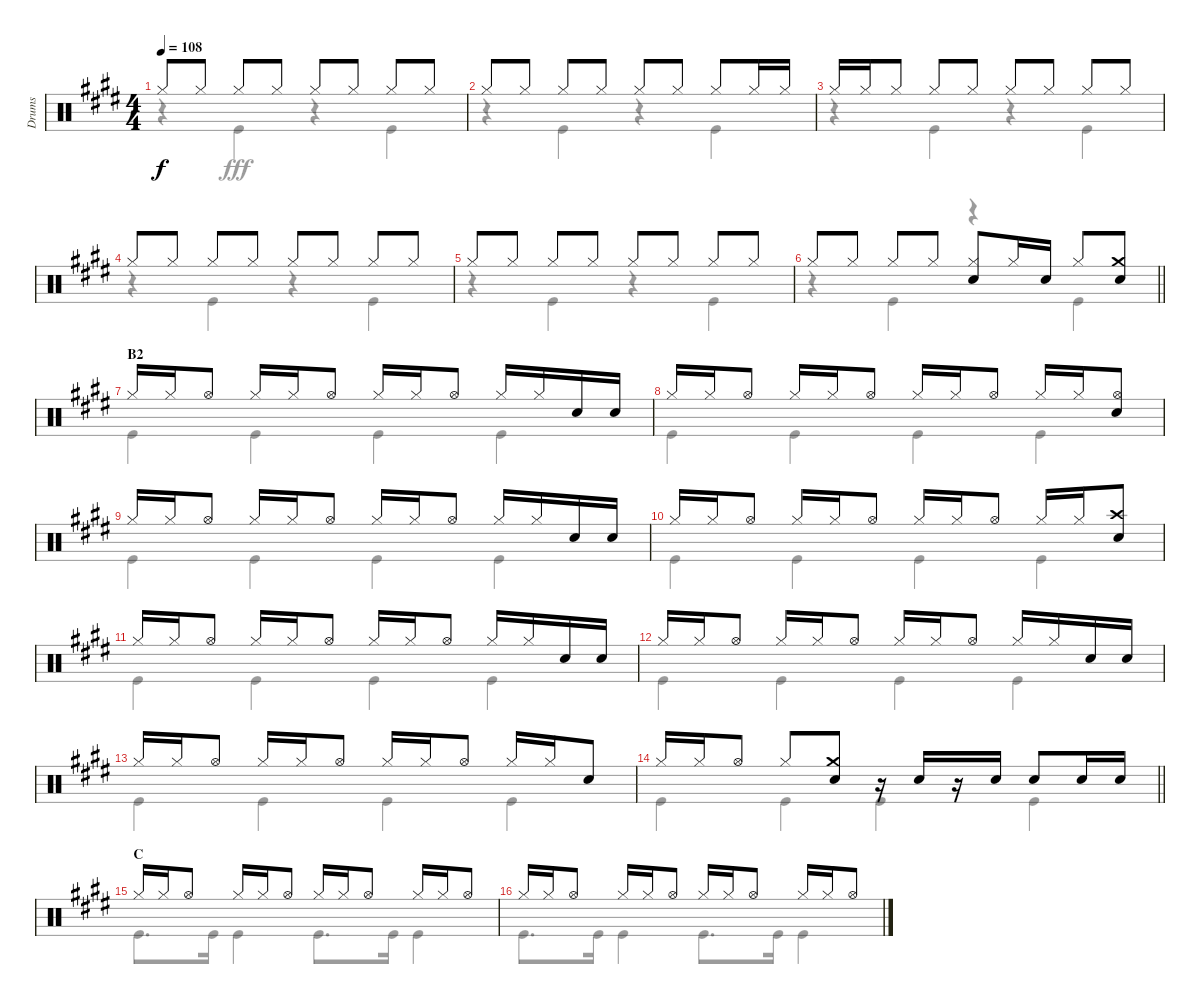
\track ("Drums" "Drums") {instrument percussion}
\staff {score}
\articulation defaults
\voice
\ts (4 4)
\tempo 108
\clef neutral
\ks e "Hi-Hat (closed)".8{dy f} "Hi-Hat (closed)".8 "Hi-Hat (closed)".8 "Hi-Hat (closed)".8 "Hi-Hat (closed)".8 "Hi-Hat (closed)".8 "Hi-Hat (closed)".8 "Hi-Hat (closed)".8
|
"Hi-Hat (closed)".8 "Hi-Hat (closed)".8 "Hi-Hat (closed)".8 "Hi-Hat (closed)".8 "Hi-Hat (closed)".8 "Hi-Hat (closed)".8 "Hi-Hat (closed)".8 "Hi-Hat (closed)".16 "Hi-Hat (closed)".16 |
"Hi-Hat (closed)".16 "Hi-Hat (closed)".16 "Hi-Hat (closed)".8 "Hi-Hat (closed)".8 "Hi-Hat (closed)".8 "Hi-Hat (closed)".8 "Hi-Hat (closed)".8 "Hi-Hat (closed)".8 "Hi-Hat (closed)".8 |
"Hi-Hat (closed)".8 "Hi-Hat (closed)".8 "Hi-Hat (closed)".8 "Hi-Hat (closed)".8 "Hi-Hat (closed)".8 "Hi-Hat (closed)".8 "Hi-Hat (closed)".8 "Hi-Hat (closed)".8 |
"Hi-Hat (closed)".8 "Hi-Hat (closed)".8 "Hi-Hat (closed)".8 "Hi-Hat (closed)".8 "Hi-Hat (closed)".8 "Hi-Hat (closed)".8 "Hi-Hat (closed)".8 "Hi-Hat (closed)".8 |
\barLineRight lightlight "Hi-Hat (closed)".8 "Hi-Hat (closed)".8 "Hi-Hat (closed)".8 "Hi-Hat (closed)".8
("Hi-Hat (closed)" "Snare (hit) 2").8 "Hi-Hat (closed)".16 "Snare (hit) 2".16 "Hi-Hat (closed)".8 ("Crash medium (hit)" "Snare (hit) 2").8 |
\section ("" "B2")
"Hi-Hat (closed)".16 "Hi-Hat (closed)".16 "Hi-Hat (open)".8 "Hi-Hat (closed)".16 "Hi-Hat (closed)".16 "Hi-Hat (open)".8 "Hi-Hat (closed)".16 "Hi-Hat (closed)".16 "Hi-Hat (open)".8 "Hi-Hat (closed)".16 "Hi-Hat (closed)".16 "Snare (hit) 2".16 "Snare (hit) 2".16 |
"Hi-Hat (closed)".16 "Hi-Hat (closed)".16 "Hi-Hat (open)".8 "Hi-Hat (closed)".16 "Hi-Hat (closed)".16 "Hi-Hat (open)".8 "Hi-Hat (closed)".16 "Hi-Hat (closed)".16 "Hi-Hat (open)".8 "Hi-Hat (closed)".16 "Hi-Hat (closed)".16 ("Hi-Hat (open)" "Snare (hit) 2").8 |
"Hi-Hat (closed)".16 "Hi-Hat (closed)".16 "Hi-Hat (open)".8 "Hi-Hat (closed)".16 "Hi-Hat (closed)".16 "Hi-Hat (open)".8 "Hi-Hat (closed)".16 "Hi-Hat (closed)".16 "Hi-Hat (open)".8 "Hi-Hat (closed)".16 "Hi-Hat (closed)".16 "Snare (hit) 2".16 "Snare (hit) 2".16 |
"Hi-Hat (closed)".16 "Hi-Hat (closed)".16 "Hi-Hat (open)".8 "Hi-Hat (closed)".16 "Hi-Hat (closed)".16 "Hi-Hat (open)".8 "Hi-Hat (closed)".16 "Hi-Hat (closed)".16 "Hi-Hat (open)".8 "Hi-Hat (closed)".16 "Hi-Hat (closed)".16 ("Crash high (hit)" "Snare (hit) 2").8 |
"Hi-Hat (closed)".16 "Hi-Hat (closed)".16 "Hi-Hat (open)".8 "Hi-Hat (closed)".16 "Hi-Hat (closed)".16 "Hi-Hat (open)".8 "Hi-Hat (closed)".16 "Hi-Hat (closed)".16 "Hi-Hat (open)".8 "Hi-Hat (closed)".16 "Hi-Hat (closed)".16 "Snare (hit) 2".16 "Snare (hit) 2".16 |
"Hi-Hat (closed)".16 "Hi-Hat (closed)".16 "Hi-Hat (open)".8 "Hi-Hat (closed)".16 "Hi-Hat (closed)".16 "Hi-Hat (open)".8 "Hi-Hat (closed)".16 "Hi-Hat (closed)".16 "Hi-Hat (open)".8 "Hi-Hat (closed)".16 "Hi-Hat (closed)".16 "Snare (hit) 2".16 "Snare (hit) 2".16 |
"Hi-Hat (closed)".16 "Hi-Hat (closed)".16 "Hi-Hat (open)".8 "Hi-Hat (closed)".16 "Hi-Hat (closed)".16 "Hi-Hat (open)".8 "Hi-Hat (closed)".16 "Hi-Hat (closed)".16 "Hi-Hat (open)".8 "Hi-Hat (closed)".16 "Hi-Hat (closed)".16 "Snare (hit) 2".8 |
\barLineRight lightlight "Hi-Hat (closed)".16 "Hi-Hat (closed)".16 "Hi-Hat (open)".8 "Hi-Hat (closed)".8
("Crash medium (hit)" "Snare (hit) 2").8 r.16 "Snare (hit) 2".16 r.16 "Snare (hit) 2".16 "Snare (hit) 2".8 "Snare (hit) 2".16 "Snare (hit) 2".16 |
\section ("" "C")
"Hi-Hat (closed)".16 "Hi-Hat (closed)".16 "Hi-Hat (open)".8 "Hi-Hat (closed)".16 "Hi-Hat (closed)".16 "Hi-Hat (open)".8 "Hi-Hat (closed)".16 "Hi-Hat (closed)".16 "Hi-Hat (open)".8 "Hi-Hat (closed)".16 "Hi-Hat (closed)".16 "Hi-Hat (open)".8 |
"Hi-Hat (closed)".16 "Hi-Hat (closed)".16 "Hi-Hat (open)".8 "Hi-Hat (closed)".16 "Hi-Hat (closed)".16 "Hi-Hat (open)".8 "Hi-Hat (closed)".16 "Hi-Hat (closed)".16 "Hi-Hat (open)".8 "Hi-Hat (closed)".16 "Hi-Hat (closed)".16 "Hi-Hat (open)".8
\voice
\clef neutral
\ottava regular
\simile none
\ks e
r.4{dy fff} "Kick (hit)".4 r.4 "Kick (hit)".4 |
r.4 "Kick (hit)".4 r.4 "Kick (hit)".4 |
r.4 "Kick (hit)".4 r.4 "Kick (hit)".4 |
r.4 "Kick (hit)".4 r.4 "Kick (hit)".4 |
r.4 "Kick (hit)".4 r.4 "Kick (hit)".4 |
\barLineRight lightlight
r.4 "Kick (hit)".4 r.4 "Kick (hit)".4 |
"Kick (hit)".4 "Kick (hit)".4 "Kick (hit)".4 "Kick (hit)".4 |
"Kick (hit)".4 "Kick (hit)".4 "Kick (hit)".4 "Kick (hit)".4 |
"Kick (hit)".4 "Kick (hit)".4 "Kick (hit)".4 "Kick (hit)".4 |
"Kick (hit)".4 "Kick (hit)".4 "Kick (hit)".4 "Kick (hit)".4 |
"Kick (hit)".4 "Kick (hit)".4 "Kick (hit)".4 "Kick (hit)".4 |
"Kick (hit)".4 "Kick (hit)".4 "Kick (hit)".4 "Kick (hit)".4 |
"Kick (hit)".4 "Kick (hit)".4 "Kick (hit)".4 "Kick (hit)".4 |
\barLineRight lightlight "Kick (hit)".4 "Kick (hit)".4 "Kick (hit)".4 "Kick (hit)".4
|
"Kick (hit)".8{d} "Kick (hit)".16 "Kick (hit)".4 "Kick (hit)".8{d} "Kick (hit)".16 "Kick (hit)".4 |
"Kick (hit)".8{d} "Kick (hit)".16 "Kick (hit)".4 "Kick (hit)".8{d} "Kick (hit)".16 "Kick (hit)".4
